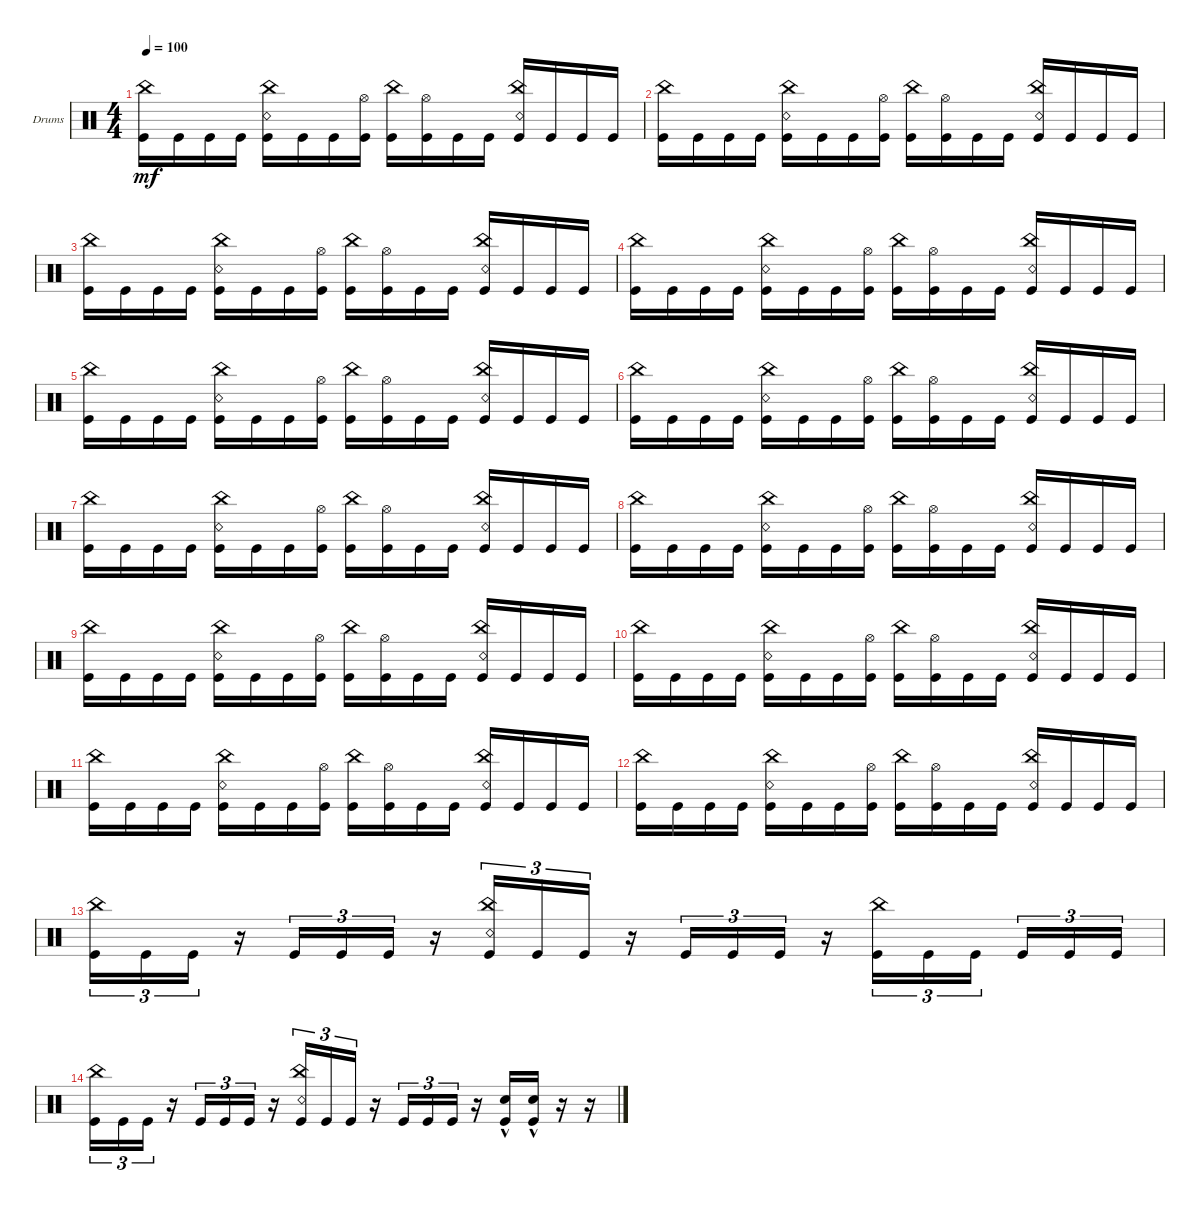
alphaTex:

\defaultSystemsLayout 4
\bracketExtendMode groupsimilarinstruments
\firstSystemTrackNameOrientation horizontal
\otherSystemsTrackNameOrientation horizontal
\track ("Drumkit" "Drums") {instrument percussion}
\staff {score}
\articulation defaults
\ts (4 4)
\tempo 100
\clef neutral
\ks c
("Kick (hit)" "China (hit)").16{dy mf} "Kick (hit)".16 "Kick (hit)".16 "Kick (hit)".16 ("Kick (hit)" "Snare (rim shot)" "China (hit)").16 "Kick (hit)".16 "Kick (hit)".16 ("Kick (hit)" "Hi-Hat (open)").16 ("Kick (hit)" "China (hit)").16 ("Kick (hit)" "Hi-Hat (open)").16 "Kick (hit)".16 "Kick (hit)".16 ("Kick (hit)" "China (hit)" "Snare (rim shot)").16 "Kick (hit)".16 "Kick (hit)".16 "Kick (hit)".16 |
("Kick (hit)" "China (hit)").16 "Kick (hit)".16 "Kick (hit)".16 "Kick (hit)".16 ("Kick (hit)" "Snare (rim shot)" "China (hit)").16 "Kick (hit)".16 "Kick (hit)".16 ("Kick (hit)" "Hi-Hat (open)").16 ("Kick (hit)" "China (hit)").16 ("Kick (hit)" "Hi-Hat (open)").16 "Kick (hit)".16 "Kick (hit)".16 ("Kick (hit)" "China (hit)" "Snare (rim shot)").16 "Kick (hit)".16 "Kick (hit)".16 "Kick (hit)".16 |
("Kick (hit)" "China (hit)").16 "Kick (hit)".16 "Kick (hit)".16 "Kick (hit)".16 ("Kick (hit)" "Snare (rim shot)" "China (hit)").16 "Kick (hit)".16 "Kick (hit)".16 ("Kick (hit)" "Hi-Hat (open)").16 ("Kick (hit)" "China (hit)").16 ("Kick (hit)" "Hi-Hat (open)").16 "Kick (hit)".16 "Kick (hit)".16 ("Kick (hit)" "China (hit)" "Snare (rim shot)").16 "Kick (hit)".16 "Kick (hit)".16 "Kick (hit)".16 |
("Kick (hit)" "China (hit)").16 "Kick (hit)".16 "Kick (hit)".16 "Kick (hit)".16 ("Kick (hit)" "Snare (rim shot)" "China (hit)").16 "Kick (hit)".16 "Kick (hit)".16 ("Kick (hit)" "Hi-Hat (open)").16 ("Kick (hit)" "China (hit)").16 ("Kick (hit)" "Hi-Hat (open)").16 "Kick (hit)".16 "Kick (hit)".16 ("Kick (hit)" "China (hit)" "Snare (rim shot)").16 "Kick (hit)".16 "Kick (hit)".16 "Kick (hit)".16 |
("Kick (hit)" "China (hit)").16 "Kick (hit)".16 "Kick (hit)".16 "Kick (hit)".16 ("Kick (hit)" "Snare (rim shot)" "China (hit)").16 "Kick (hit)".16 "Kick (hit)".16 ("Kick (hit)" "Hi-Hat (open)").16 ("Kick (hit)" "China (hit)").16 ("Kick (hit)" "Hi-Hat (open)").16 "Kick (hit)".16 "Kick (hit)".16 ("Kick (hit)" "China (hit)" "Snare (rim shot)").16 "Kick (hit)".16 "Kick (hit)".16 "Kick (hit)".16 |
("Kick (hit)" "China (hit)").16 "Kick (hit)".16 "Kick (hit)".16 "Kick (hit)".16 ("Kick (hit)" "Snare (rim shot)" "China (hit)").16 "Kick (hit)".16 "Kick (hit)".16 ("Kick (hit)" "Hi-Hat (open)").16 ("Kick (hit)" "China (hit)").16 ("Kick (hit)" "Hi-Hat (open)").16 "Kick (hit)".16 "Kick (hit)".16 ("Kick (hit)" "China (hit)" "Snare (rim shot)").16 "Kick (hit)".16 "Kick (hit)".16 "Kick (hit)".16 |
("Kick (hit)" "China (hit)").16 "Kick (hit)".16 "Kick (hit)".16 "Kick (hit)".16 ("Kick (hit)" "Snare (rim shot)" "China (hit)").16 "Kick (hit)".16 "Kick (hit)".16 ("Kick (hit)" "Hi-Hat (open)").16 ("Kick (hit)" "China (hit)").16 ("Kick (hit)" "Hi-Hat (open)").16 "Kick (hit)".16 "Kick (hit)".16 ("Kick (hit)" "China (hit)" "Snare (rim shot)").16 "Kick (hit)".16 "Kick (hit)".16 "Kick (hit)".16 |
("Kick (hit)" "China (hit)").16 "Kick (hit)".16 "Kick (hit)".16 "Kick (hit)".16 ("Kick (hit)" "Snare (rim shot)" "China (hit)").16 "Kick (hit)".16 "Kick (hit)".16 ("Kick (hit)" "Hi-Hat (open)").16 ("Kick (hit)" "China (hit)").16 ("Kick (hit)" "Hi-Hat (open)").16 "Kick (hit)".16 "Kick (hit)".16 ("Kick (hit)" "China (hit)" "Snare (rim shot)").16 "Kick (hit)".16 "Kick (hit)".16 "Kick (hit)".16 |
("Kick (hit)" "China (hit)").16 "Kick (hit)".16 "Kick (hit)".16 "Kick (hit)".16 ("Kick (hit)" "Snare (rim shot)" "China (hit)").16 "Kick (hit)".16 "Kick (hit)".16 ("Kick (hit)" "Hi-Hat (open)").16 ("Kick (hit)" "China (hit)").16 ("Kick (hit)" "Hi-Hat (open)").16 "Kick (hit)".16 "Kick (hit)".16 ("Kick (hit)" "China (hit)" "Snare (rim shot)").16 "Kick (hit)".16 "Kick (hit)".16 "Kick (hit)".16 |
("Kick (hit)" "China (hit)").16 "Kick (hit)".16 "Kick (hit)".16 "Kick (hit)".16 ("Kick (hit)" "Snare (rim shot)" "China (hit)").16 "Kick (hit)".16 "Kick (hit)".16 ("Kick (hit)" "Hi-Hat (open)").16 ("Kick (hit)" "China (hit)").16 ("Kick (hit)" "Hi-Hat (open)").16 "Kick (hit)".16 "Kick (hit)".16 ("Kick (hit)" "China (hit)" "Snare (rim shot)").16 "Kick (hit)".16 "Kick (hit)".16 "Kick (hit)".16 |
("Kick (hit)" "China (hit)").16 "Kick (hit)".16 "Kick (hit)".16 "Kick (hit)".16 ("Kick (hit)" "Snare (rim shot)" "China (hit)").16 "Kick (hit)".16 "Kick (hit)".16 ("Kick (hit)" "Hi-Hat (open)").16 ("Kick (hit)" "China (hit)").16 ("Kick (hit)" "Hi-Hat (open)").16 "Kick (hit)".16 "Kick (hit)".16 ("Kick (hit)" "China (hit)" "Snare (rim shot)").16 "Kick (hit)".16 "Kick (hit)".16 "Kick (hit)".16 |
("Kick (hit)" "China (hit)").16 "Kick (hit)".16 "Kick (hit)".16 "Kick (hit)".16 ("Kick (hit)" "Snare (rim shot)" "China (hit)").16 "Kick (hit)".16 "Kick (hit)".16 ("Kick (hit)" "Hi-Hat (open)").16 ("Kick (hit)" "China (hit)").16 ("Kick (hit)" "Hi-Hat (open)").16 "Kick (hit)".16 "Kick (hit)".16 ("Kick (hit)" "China (hit)" "Snare (rim shot)").16 "Kick (hit)".16 "Kick (hit)".16 "Kick (hit)".16 |
("Kick (hit)" "China (hit)").16{tu (3 2)} "Kick (hit)".16{tu (3 2)} "Kick (hit)".16{tu (3 2)} r.16 "Kick (hit)".16{tu (3 2)} "Kick (hit)".16{tu (3 2)} "Kick (hit)".16{tu (3 2)} r.16 ("Kick (hit)" "Snare (rim shot)" "China (hit)").16{tu (3 2)} "Kick (hit)".16{tu (3 2)} "Kick (hit)".16{tu (3 2)} r.16 "Kick (hit)".16{tu (3 2)} "Kick (hit)".16{tu (3 2)} "Kick (hit)".16{tu (3 2)} r.16 ("Kick (hit)" "China (hit)").16{tu (3 2)} "Kick (hit)".16{tu (3 2)} "Kick (hit)".16{tu (3 2)} "Kick (hit)".16{tu (3 2)} "Kick (hit)".16{tu (3 2)} "Kick (hit)".16{tu (3 2)} |
("Kick (hit)" "China (hit)").16{tu (3 2)} "Kick (hit)".16{tu (3 2)} "Kick (hit)".16{tu (3 2)} r.16 "Kick (hit)".16{tu (3 2)} "Kick (hit)".16{tu (3 2)} "Kick (hit)".16{tu (3 2)} r.16 ("Kick (hit)" "Snare (rim shot)" "China (hit)").16{tu (3 2)} "Kick (hit)".16{tu (3 2)} "Kick (hit)".16{tu (3 2)} r.16 "Kick (hit)".16{tu (3 2)} "Kick (hit)".16{tu (3 2)} "Kick (hit)".16{tu (3 2)} r.16 ("Kick (hit)"{hac} "Snare (hit) 2"{hac}).16 ("Kick (hit)"{hac} "Snare (hit) 2"{hac}).16 r.16 r.16
